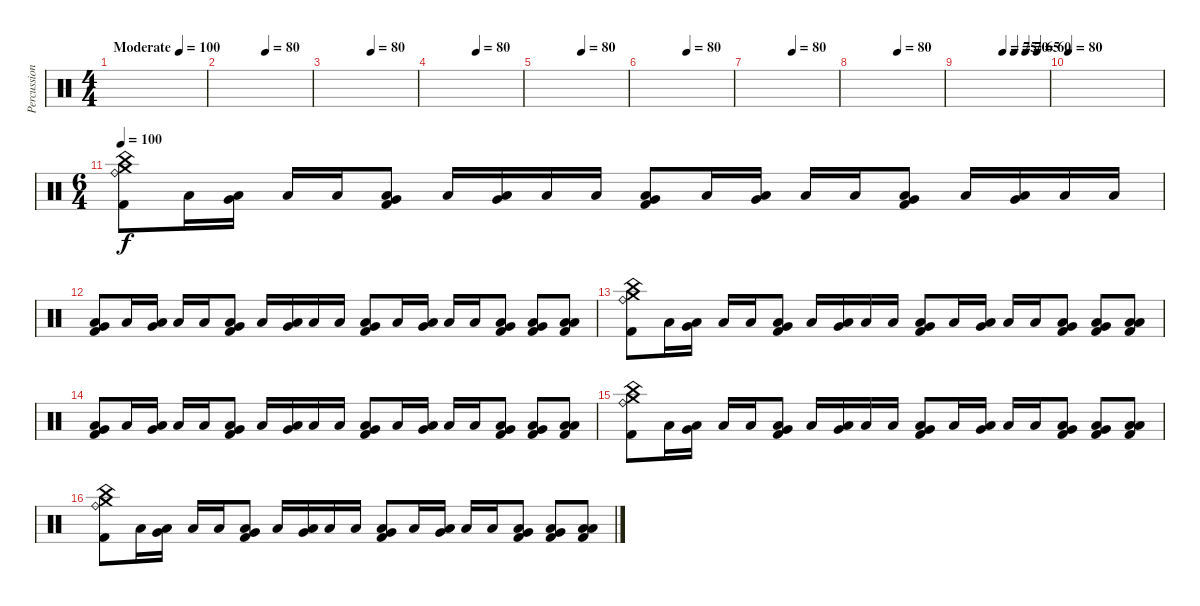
\track ("Percussion" "Percussion") {instrument percussion}
\staff {score}
\articulation defaults
\ts (4 4)
\tempo (100 "Moderate")
\tempo 80
\tempo (100 "Moderate")
\clef neutral
\ks c
|
\tempo (80 0.5)
|
\tempo (80 0.5)
|
\tempo (80 0.5)
|
\tempo (80 0.5)
|
\tempo (80 0.5)
|
\tempo (80 0.5)
|
\tempo (80 0.5)
|
\tempo (80 0.5)
\tempo (75 0.5)
\tempo (70 0.625)
\tempo (65 0.75)
\tempo (60 0.875)
|
\tempo 80
|
\ts (6 4)
\tempo 100
("Crash medium (hit)" "Ride (bell)" "China (hit)" "Kick (hit) 2").8 "Low Floor Tom (hit)".16 ("Very Low Tom (hit)" "Low Floor Tom (hit)").16 "Low Floor Tom (hit)".16 "Low Floor Tom (hit)".16 ("Very Low Tom (hit)" "Low Floor Tom (hit)" "Kick (hit) 2").8 "Low Floor Tom (hit)".16 ("Very Low Tom (hit)" "Low Floor Tom (hit)").16 "Low Floor Tom (hit)".16 "Low Floor Tom (hit)".16 ("Very Low Tom (hit)" "Low Floor Tom (hit)" "Kick (hit) 2").8 "Low Floor Tom (hit)".16 ("Very Low Tom (hit)" "Low Floor Tom (hit)").16 "Low Floor Tom (hit)".16 "Low Floor Tom (hit)".16 ("Very Low Tom (hit)" "Low Floor Tom (hit)" "Kick (hit) 2").8 "Low Floor Tom (hit)".16 ("Very Low Tom (hit)" "Low Floor Tom (hit)").16 "Low Floor Tom (hit)".16 "Low Floor Tom (hit)".16 |
("Very Low Tom (hit)" "Low Floor Tom (hit)" "Kick (hit) 2").8 "Low Floor Tom (hit)".16 ("Very Low Tom (hit)" "Low Floor Tom (hit)").16 "Low Floor Tom (hit)".16 "Low Floor Tom (hit)".16 ("Very Low Tom (hit)" "Low Floor Tom (hit)" "Kick (hit) 2").8 "Low Floor Tom (hit)".16 ("Very Low Tom (hit)" "Low Floor Tom (hit)").16 "Low Floor Tom (hit)".16 "Low Floor Tom (hit)".16 ("Very Low Tom (hit)" "Low Floor Tom (hit)" "Kick (hit) 2").8 "Low Floor Tom (hit)".16 ("Very Low Tom (hit)" "Low Floor Tom (hit)").16 "Low Floor Tom (hit)".16 "Low Floor Tom (hit)".16 ("Very Low Tom (hit)" "Low Tom (hit)" "Kick (hit) 2").8 ("Low Floor Tom (hit)" "Very Low Tom (hit)" "Kick (hit) 2").8 ("Low Floor Tom (hit)" "Low Floor Tom (hit)" "Kick (hit) 2").8 |
("Crash medium (hit)" "Ride (bell)" "China (hit)" "Kick (hit) 2").8 "Low Floor Tom (hit)".16 ("Very Low Tom (hit)" "Low Floor Tom (hit)").16 "Low Floor Tom (hit)".16 "Low Floor Tom (hit)".16 ("Very Low Tom (hit)" "Low Floor Tom (hit)" "Kick (hit) 2").8 "Low Floor Tom (hit)".16 ("Very Low Tom (hit)" "Low Floor Tom (hit)").16 "Low Floor Tom (hit)".16 "Low Floor Tom (hit)".16 ("Very Low Tom (hit)" "Low Floor Tom (hit)" "Kick (hit) 2").8 "Low Floor Tom (hit)".16 ("Very Low Tom (hit)" "Low Floor Tom (hit)").16 "Low Floor Tom (hit)".16 "Low Floor Tom (hit)".16 ("Very Low Tom (hit)" "Low Tom (hit)" "Kick (hit) 2").8 ("Low Floor Tom (hit)" "Very Low Tom (hit)" "Kick (hit) 2").8 ("Low Floor Tom (hit)" "Low Floor Tom (hit)" "Kick (hit) 2").8 |
("Very Low Tom (hit)" "Low Floor Tom (hit)" "Kick (hit) 2").8 "Low Floor Tom (hit)".16 ("Very Low Tom (hit)" "Low Floor Tom (hit)").16 "Low Floor Tom (hit)".16 "Low Floor Tom (hit)".16 ("Very Low Tom (hit)" "Low Floor Tom (hit)" "Kick (hit) 2").8 "Low Floor Tom (hit)".16 ("Very Low Tom (hit)" "Low Floor Tom (hit)").16 "Low Floor Tom (hit)".16 "Low Floor Tom (hit)".16 ("Very Low Tom (hit)" "Low Floor Tom (hit)" "Kick (hit) 2").8 "Low Floor Tom (hit)".16 ("Very Low Tom (hit)" "Low Floor Tom (hit)").16 "Low Floor Tom (hit)".16 "Low Floor Tom (hit)".16 ("Very Low Tom (hit)" "Low Tom (hit)" "Kick (hit) 2").8 ("Low Floor Tom (hit)" "Very Low Tom (hit)" "Kick (hit) 2").8 ("Low Floor Tom (hit)" "Low Floor Tom (hit)" "Kick (hit) 2").8 |
("Crash medium (hit)" "Ride (bell)" "China (hit)" "Kick (hit) 2").8 "Low Floor Tom (hit)".16 ("Very Low Tom (hit)" "Low Floor Tom (hit)").16 "Low Floor Tom (hit)".16 "Low Floor Tom (hit)".16 ("Very Low Tom (hit)" "Low Floor Tom (hit)" "Kick (hit) 2").8 "Low Floor Tom (hit)".16 ("Very Low Tom (hit)" "Low Floor Tom (hit)").16 "Low Floor Tom (hit)".16 "Low Floor Tom (hit)".16 ("Very Low Tom (hit)" "Low Floor Tom (hit)" "Kick (hit) 2").8 "Low Floor Tom (hit)".16 ("Very Low Tom (hit)" "Low Floor Tom (hit)").16 "Low Floor Tom (hit)".16 "Low Floor Tom (hit)".16 ("Very Low Tom (hit)" "Low Tom (hit)" "Kick (hit) 2").8 ("Low Floor Tom (hit)" "Very Low Tom (hit)" "Kick (hit) 2").8 ("Low Floor Tom (hit)" "Low Floor Tom (hit)" "Kick (hit) 2").8 |
("Crash medium (hit)" "Ride (bell)" "China (hit)" "Kick (hit) 2").8 "Low Floor Tom (hit)".16 ("Very Low Tom (hit)" "Low Floor Tom (hit)").16 "Low Floor Tom (hit)".16 "Low Floor Tom (hit)".16 ("Very Low Tom (hit)" "Low Floor Tom (hit)" "Kick (hit) 2").8 "Low Floor Tom (hit)".16 ("Very Low Tom (hit)" "Low Floor Tom (hit)").16 "Low Floor Tom (hit)".16 "Low Floor Tom (hit)".16 ("Very Low Tom (hit)" "Low Floor Tom (hit)" "Kick (hit) 2").8 "Low Floor Tom (hit)".16 ("Very Low Tom (hit)" "Low Floor Tom (hit)").16 "Low Floor Tom (hit)".16 "Low Floor Tom (hit)".16 ("Very Low Tom (hit)" "Low Tom (hit)" "Kick (hit) 2").8 ("Low Floor Tom (hit)" "Very Low Tom (hit)" "Kick (hit) 2").8 ("Low Floor Tom (hit)" "Low Floor Tom (hit)" "Kick (hit) 2").8
